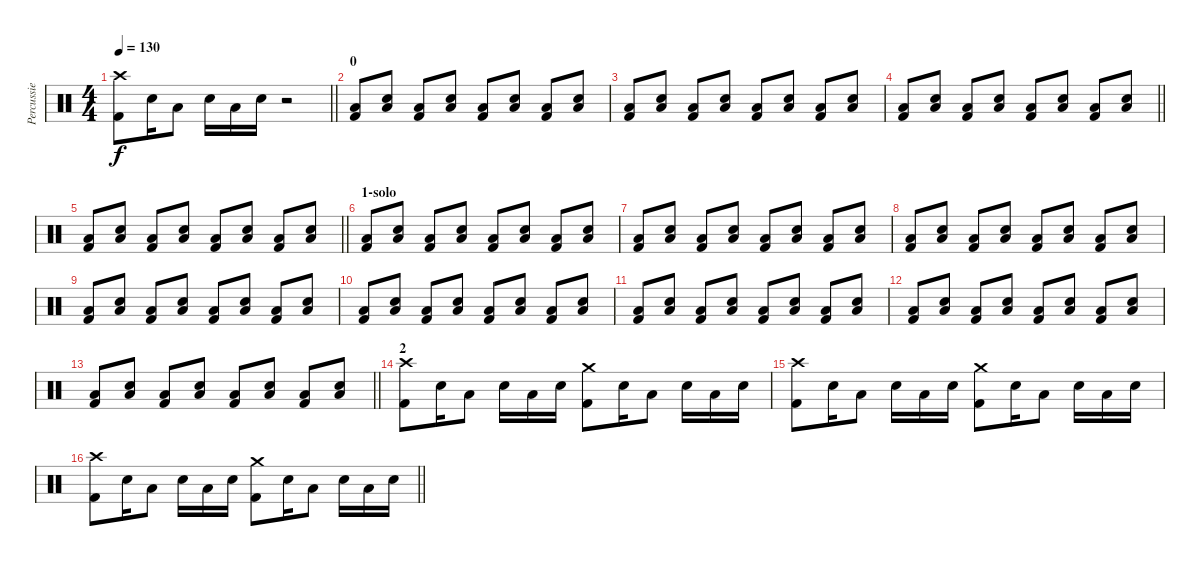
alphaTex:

\track ("Percussie" "Percussie") {instrument percussion}
\staff {score}
\articulation defaults
\ts (4 4)
\tempo 130
\clef neutral
\barLineRight lightlight
\ks c
("Crash high (hit)" "Kick (hit) 2").8{dy f} "Snare (hit) 2".16 "Low Floor Tom (hit)".8 "Snare (hit) 2".16 "Low Floor Tom (hit)".16 "Snare (hit) 2".16 r.2 |
\section ("" "0")
("Low Floor Tom (hit)" "Kick (hit) 2").8 ("Low Floor Tom (hit)" "Snare (hit) 2").8 ("Low Floor Tom (hit)" "Kick (hit) 2").8 ("Low Floor Tom (hit)" "Snare (hit) 2").8 ("Low Floor Tom (hit)" "Kick (hit) 2").8 ("Low Floor Tom (hit)" "Snare (hit) 2").8 ("Low Floor Tom (hit)" "Kick (hit) 2").8 ("Low Floor Tom (hit)" "Snare (hit) 2").8 |
("Low Floor Tom (hit)" "Kick (hit) 2").8 ("Low Floor Tom (hit)" "Snare (hit) 2").8 ("Low Floor Tom (hit)" "Kick (hit) 2").8 ("Low Floor Tom (hit)" "Snare (hit) 2").8 ("Low Floor Tom (hit)" "Kick (hit) 2").8 ("Low Floor Tom (hit)" "Snare (hit) 2").8 ("Low Floor Tom (hit)" "Kick (hit) 2").8 ("Low Floor Tom (hit)" "Snare (hit) 2").8 |
\barLineRight lightlight
("Low Floor Tom (hit)" "Kick (hit) 2").8 ("Low Floor Tom (hit)" "Snare (hit) 2").8 ("Low Floor Tom (hit)" "Kick (hit) 2").8 ("Low Floor Tom (hit)" "Snare (hit) 2").8 ("Low Floor Tom (hit)" "Kick (hit) 2").8 ("Low Floor Tom (hit)" "Snare (hit) 2").8 ("Low Floor Tom (hit)" "Kick (hit) 2").8 ("Low Floor Tom (hit)" "Snare (hit) 2").8 |
\barLineRight lightlight
("Low Floor Tom (hit)" "Kick (hit) 2").8 ("Low Floor Tom (hit)" "Snare (hit) 2").8 ("Low Floor Tom (hit)" "Kick (hit) 2").8 ("Low Floor Tom (hit)" "Snare (hit) 2").8 ("Low Floor Tom (hit)" "Kick (hit) 2").8 ("Low Floor Tom (hit)" "Snare (hit) 2").8 ("Low Floor Tom (hit)" "Kick (hit) 2").8 ("Low Floor Tom (hit)" "Snare (hit) 2").8 |
\section ("" "1-solo")
("Low Floor Tom (hit)" "Kick (hit) 2").8 ("Low Floor Tom (hit)" "Snare (hit) 2").8 ("Low Floor Tom (hit)" "Kick (hit) 2").8 ("Low Floor Tom (hit)" "Snare (hit) 2").8 ("Low Floor Tom (hit)" "Kick (hit) 2").8 ("Low Floor Tom (hit)" "Snare (hit) 2").8 ("Low Floor Tom (hit)" "Kick (hit) 2").8 ("Low Floor Tom (hit)" "Snare (hit) 2").8 |
("Low Floor Tom (hit)" "Kick (hit) 2").8 ("Low Floor Tom (hit)" "Snare (hit) 2").8 ("Low Floor Tom (hit)" "Kick (hit) 2").8 ("Low Floor Tom (hit)" "Snare (hit) 2").8 ("Low Floor Tom (hit)" "Kick (hit) 2").8 ("Low Floor Tom (hit)" "Snare (hit) 2").8 ("Low Floor Tom (hit)" "Kick (hit) 2").8 ("Low Floor Tom (hit)" "Snare (hit) 2").8 |
("Low Floor Tom (hit)" "Kick (hit) 2").8 ("Low Floor Tom (hit)" "Snare (hit) 2").8 ("Low Floor Tom (hit)" "Kick (hit) 2").8 ("Low Floor Tom (hit)" "Snare (hit) 2").8 ("Low Floor Tom (hit)" "Kick (hit) 2").8 ("Low Floor Tom (hit)" "Snare (hit) 2").8 ("Low Floor Tom (hit)" "Kick (hit) 2").8 ("Low Floor Tom (hit)" "Snare (hit) 2").8 |
("Low Floor Tom (hit)" "Kick (hit) 2").8 ("Low Floor Tom (hit)" "Snare (hit) 2").8 ("Low Floor Tom (hit)" "Kick (hit) 2").8 ("Low Floor Tom (hit)" "Snare (hit) 2").8 ("Low Floor Tom (hit)" "Kick (hit) 2").8 ("Low Floor Tom (hit)" "Snare (hit) 2").8 ("Low Floor Tom (hit)" "Kick (hit) 2").8 ("Low Floor Tom (hit)" "Snare (hit) 2").8 |
("Low Floor Tom (hit)" "Kick (hit) 2").8 ("Low Floor Tom (hit)" "Snare (hit) 2").8 ("Low Floor Tom (hit)" "Kick (hit) 2").8 ("Low Floor Tom (hit)" "Snare (hit) 2").8 ("Low Floor Tom (hit)" "Kick (hit) 2").8 ("Low Floor Tom (hit)" "Snare (hit) 2").8 ("Low Floor Tom (hit)" "Kick (hit) 2").8 ("Low Floor Tom (hit)" "Snare (hit) 2").8 |
("Low Floor Tom (hit)" "Kick (hit) 2").8 ("Low Floor Tom (hit)" "Snare (hit) 2").8 ("Low Floor Tom (hit)" "Kick (hit) 2").8 ("Low Floor Tom (hit)" "Snare (hit) 2").8 ("Low Floor Tom (hit)" "Kick (hit) 2").8 ("Low Floor Tom (hit)" "Snare (hit) 2").8 ("Low Floor Tom (hit)" "Kick (hit) 2").8 ("Low Floor Tom (hit)" "Snare (hit) 2").8 |
("Low Floor Tom (hit)" "Kick (hit) 2").8 ("Low Floor Tom (hit)" "Snare (hit) 2").8 ("Low Floor Tom (hit)" "Kick (hit) 2").8 ("Low Floor Tom (hit)" "Snare (hit) 2").8 ("Low Floor Tom (hit)" "Kick (hit) 2").8 ("Low Floor Tom (hit)" "Snare (hit) 2").8 ("Low Floor Tom (hit)" "Kick (hit) 2").8 ("Low Floor Tom (hit)" "Snare (hit) 2").8 |
\barLineRight lightlight
("Low Floor Tom (hit)" "Kick (hit) 2").8 ("Low Floor Tom (hit)" "Snare (hit) 2").8 ("Low Floor Tom (hit)" "Kick (hit) 2").8 ("Low Floor Tom (hit)" "Snare (hit) 2").8 ("Low Floor Tom (hit)" "Kick (hit) 2").8 ("Low Floor Tom (hit)" "Snare (hit) 2").8 ("Low Floor Tom (hit)" "Kick (hit) 2").8 ("Low Floor Tom (hit)" "Snare (hit) 2").8 |
\section ("" "2")
("Crash high (hit)" "Kick (hit) 2").8 "Snare (hit) 2".16 "Low Floor Tom (hit)".8 "Snare (hit) 2".16 "Low Floor Tom (hit)".16 "Snare (hit) 2".16 ("Crash medium (hit)" "Kick (hit) 2").8 "Snare (hit) 2".16 "Low Floor Tom (hit)".8 "Snare (hit) 2".16 "Low Floor Tom (hit)".16 "Snare (hit) 2".16 |
("Crash high (hit)" "Kick (hit) 2").8 "Snare (hit) 2".16 "Low Floor Tom (hit)".8 "Snare (hit) 2".16 "Low Floor Tom (hit)".16 "Snare (hit) 2".16 ("Crash medium (hit)" "Kick (hit) 2").8 "Snare (hit) 2".16 "Low Floor Tom (hit)".8 "Snare (hit) 2".16 "Low Floor Tom (hit)".16 "Snare (hit) 2".16 |
\barLineRight lightlight
("Crash high (hit)" "Kick (hit) 2").8 "Snare (hit) 2".16 "Low Floor Tom (hit)".8 "Snare (hit) 2".16 "Low Floor Tom (hit)".16 "Snare (hit) 2".16 ("Crash medium (hit)" "Kick (hit) 2").8 "Snare (hit) 2".16 "Low Floor Tom (hit)".8 "Snare (hit) 2".16 "Low Floor Tom (hit)".16 "Snare (hit) 2".16
